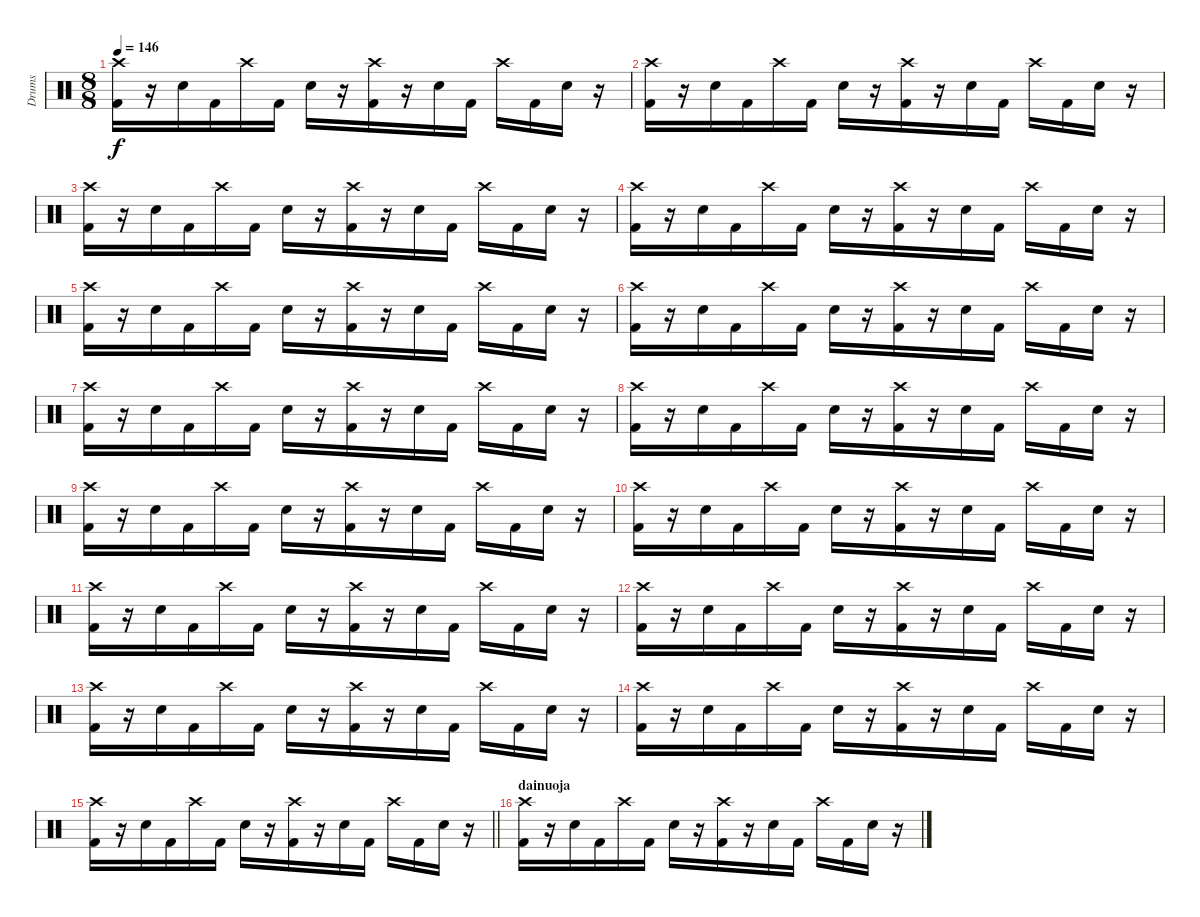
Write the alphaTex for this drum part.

\track ("Drums" "Drums") {instrument percussion}
\staff {score}
\articulation defaults
\ts (8 8)
\tempo 146
\clef neutral
\ks c
("Crash high (hit)" "Kick (hit) 2").16{dy f} r.16 "Snare (hit) 2".16 "Kick (hit) 2".16 "Crash high (hit)".16 "Kick (hit) 2".16 "Snare (hit) 2".16 r.16 ("Crash high (hit)" "Kick (hit) 2").16 r.16 "Snare (hit) 2".16 "Kick (hit) 2".16 "Crash high (hit)".16 "Kick (hit) 2".16 "Snare (hit) 2".16 r.16 |
("Crash high (hit)" "Kick (hit) 2").16 r.16 "Snare (hit) 2".16 "Kick (hit) 2".16 "Crash high (hit)".16 "Kick (hit) 2".16 "Snare (hit) 2".16 r.16 ("Crash high (hit)" "Kick (hit) 2").16 r.16 "Snare (hit) 2".16 "Kick (hit) 2".16 "Crash high (hit)".16 "Kick (hit) 2".16 "Snare (hit) 2".16 r.16 |
("Crash high (hit)" "Kick (hit) 2").16 r.16 "Snare (hit) 2".16 "Kick (hit) 2".16 "Crash high (hit)".16 "Kick (hit) 2".16 "Snare (hit) 2".16 r.16 ("Crash high (hit)" "Kick (hit) 2").16 r.16 "Snare (hit) 2".16 "Kick (hit) 2".16 "Crash high (hit)".16 "Kick (hit) 2".16 "Snare (hit) 2".16 r.16 |
("Crash high (hit)" "Kick (hit) 2").16 r.16 "Snare (hit) 2".16 "Kick (hit) 2".16 "Crash high (hit)".16 "Kick (hit) 2".16 "Snare (hit) 2".16 r.16 ("Crash high (hit)" "Kick (hit) 2").16 r.16 "Snare (hit) 2".16 "Kick (hit) 2".16 "Crash high (hit)".16 "Kick (hit) 2".16 "Snare (hit) 2".16 r.16 |
("Crash high (hit)" "Kick (hit) 2").16 r.16 "Snare (hit) 2".16 "Kick (hit) 2".16 "Crash high (hit)".16 "Kick (hit) 2".16 "Snare (hit) 2".16 r.16 ("Crash high (hit)" "Kick (hit) 2").16 r.16 "Snare (hit) 2".16 "Kick (hit) 2".16 "Crash high (hit)".16 "Kick (hit) 2".16 "Snare (hit) 2".16 r.16 |
("Crash high (hit)" "Kick (hit) 2").16 r.16 "Snare (hit) 2".16 "Kick (hit) 2".16 "Crash high (hit)".16 "Kick (hit) 2".16 "Snare (hit) 2".16 r.16 ("Crash high (hit)" "Kick (hit) 2").16 r.16 "Snare (hit) 2".16 "Kick (hit) 2".16 "Crash high (hit)".16 "Kick (hit) 2".16 "Snare (hit) 2".16 r.16 |
("Crash high (hit)" "Kick (hit) 2").16 r.16 "Snare (hit) 2".16 "Kick (hit) 2".16 "Crash high (hit)".16 "Kick (hit) 2".16 "Snare (hit) 2".16 r.16 ("Crash high (hit)" "Kick (hit) 2").16 r.16 "Snare (hit) 2".16 "Kick (hit) 2".16 "Crash high (hit)".16 "Kick (hit) 2".16 "Snare (hit) 2".16 r.16 |
("Crash high (hit)" "Kick (hit) 2").16 r.16 "Snare (hit) 2".16 "Kick (hit) 2".16 "Crash high (hit)".16 "Kick (hit) 2".16 "Snare (hit) 2".16 r.16 ("Crash high (hit)" "Kick (hit) 2").16 r.16 "Snare (hit) 2".16 "Kick (hit) 2".16 "Crash high (hit)".16 "Kick (hit) 2".16 "Snare (hit) 2".16 r.16 |
("Crash high (hit)" "Kick (hit) 2").16 r.16 "Snare (hit) 2".16 "Kick (hit) 2".16 "Crash high (hit)".16 "Kick (hit) 2".16 "Snare (hit) 2".16 r.16 ("Crash high (hit)" "Kick (hit) 2").16 r.16 "Snare (hit) 2".16 "Kick (hit) 2".16 "Crash high (hit)".16 "Kick (hit) 2".16 "Snare (hit) 2".16 r.16 |
("Crash high (hit)" "Kick (hit) 2").16 r.16 "Snare (hit) 2".16 "Kick (hit) 2".16 "Crash high (hit)".16 "Kick (hit) 2".16 "Snare (hit) 2".16 r.16 ("Crash high (hit)" "Kick (hit) 2").16 r.16 "Snare (hit) 2".16 "Kick (hit) 2".16 "Crash high (hit)".16 "Kick (hit) 2".16 "Snare (hit) 2".16 r.16 |
("Crash high (hit)" "Kick (hit) 2").16 r.16 "Snare (hit) 2".16 "Kick (hit) 2".16 "Crash high (hit)".16 "Kick (hit) 2".16 "Snare (hit) 2".16 r.16 ("Crash high (hit)" "Kick (hit) 2").16 r.16 "Snare (hit) 2".16 "Kick (hit) 2".16 "Crash high (hit)".16 "Kick (hit) 2".16 "Snare (hit) 2".16 r.16 |
("Crash high (hit)" "Kick (hit) 2").16 r.16 "Snare (hit) 2".16 "Kick (hit) 2".16 "Crash high (hit)".16 "Kick (hit) 2".16 "Snare (hit) 2".16 r.16 ("Crash high (hit)" "Kick (hit) 2").16 r.16 "Snare (hit) 2".16 "Kick (hit) 2".16 "Crash high (hit)".16 "Kick (hit) 2".16 "Snare (hit) 2".16 r.16 |
("Crash high (hit)" "Kick (hit) 2").16 r.16 "Snare (hit) 2".16 "Kick (hit) 2".16 "Crash high (hit)".16 "Kick (hit) 2".16 "Snare (hit) 2".16 r.16 ("Crash high (hit)" "Kick (hit) 2").16 r.16 "Snare (hit) 2".16 "Kick (hit) 2".16 "Crash high (hit)".16 "Kick (hit) 2".16 "Snare (hit) 2".16 r.16 |
("Crash high (hit)" "Kick (hit) 2").16 r.16 "Snare (hit) 2".16 "Kick (hit) 2".16 "Crash high (hit)".16 "Kick (hit) 2".16 "Snare (hit) 2".16 r.16 ("Crash high (hit)" "Kick (hit) 2").16 r.16 "Snare (hit) 2".16 "Kick (hit) 2".16 "Crash high (hit)".16 "Kick (hit) 2".16 "Snare (hit) 2".16 r.16 |
\barLineRight lightlight
("Crash high (hit)" "Kick (hit) 2").16 r.16 "Snare (hit) 2".16 "Kick (hit) 2".16 "Crash high (hit)".16 "Kick (hit) 2".16 "Snare (hit) 2".16 r.16 ("Crash high (hit)" "Kick (hit) 2").16 r.16 "Snare (hit) 2".16 "Kick (hit) 2".16 "Crash high (hit)".16 "Kick (hit) 2".16 "Snare (hit) 2".16 r.16 |
\section ("" "dainuoja")
("Crash high (hit)" "Kick (hit) 2").16 r.16 "Snare (hit) 2".16 "Kick (hit) 2".16 "Crash high (hit)".16 "Kick (hit) 2".16 "Snare (hit) 2".16 r.16 ("Crash high (hit)" "Kick (hit) 2").16 r.16 "Snare (hit) 2".16 "Kick (hit) 2".16 "Crash high (hit)".16 "Kick (hit) 2".16 "Snare (hit) 2".16 r.16
